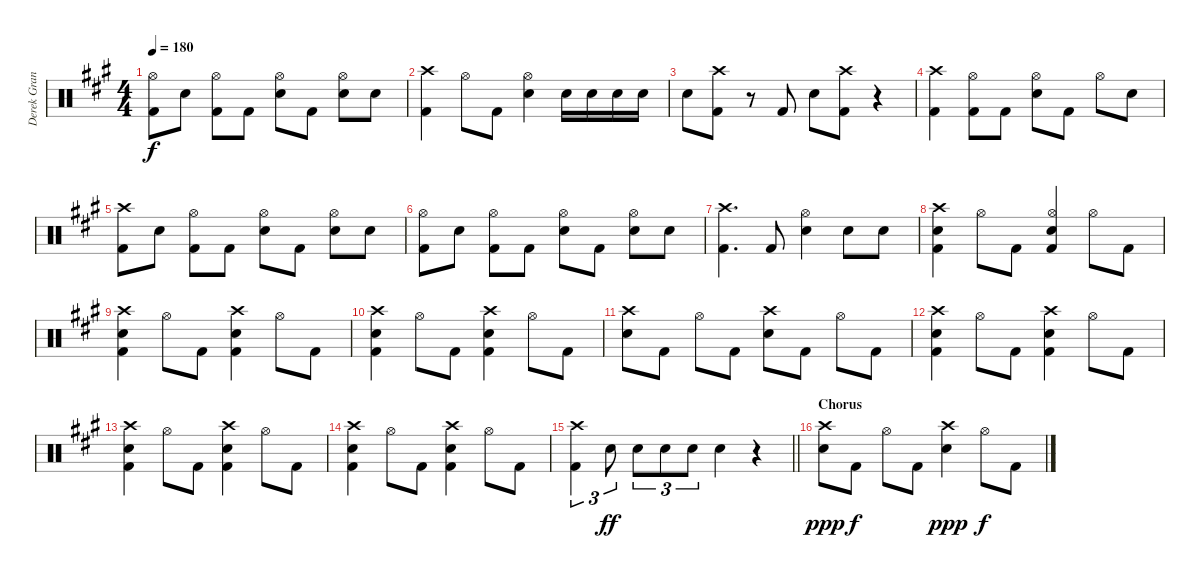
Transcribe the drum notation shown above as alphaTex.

\track ("Derek Grant - Drums" "Derek Gran") {instrument percussion}
\staff {score}
\articulation defaults
\ts (4 4)
\tempo 180
\clef neutral
\ks a
("Kick (hit) 2" "Hi-Hat (open)").8{dy f} "Snare (hit) 2".8 ("Kick (hit) 2" "Hi-Hat (open)").8 "Kick (hit) 2".8 ("Snare (hit) 2" "Hi-Hat (open)").8 "Kick (hit) 2".8 ("Snare (hit) 2" "Hi-Hat (open)").8 "Snare (hit) 2".8 |
("Kick (hit) 2" "Crash high (hit)").4 "Hi-Hat (open)".8 "Kick (hit) 2".8 ("Snare (hit) 2" "Hi-Hat (open)").4 "Snare (hit) 2".16 "Snare (hit) 2".16 "Snare (hit) 2".16 "Snare (hit) 2".16 |
"Snare (hit) 2".8 ("Kick (hit) 2" "Crash high (hit)").8 r.8 "Kick (hit) 2".8 "Snare (hit) 2".8 ("Kick (hit) 2" "Crash high (hit)").8 r.4 |
("Kick (hit) 2" "Crash high (hit)").4 ("Kick (hit) 2" "Hi-Hat (open)").8 "Kick (hit) 2".8 ("Snare (hit) 2" "Hi-Hat (open)").8 "Kick (hit) 2".8 "Hi-Hat (open)".8 "Snare (hit) 2".8 |
("Kick (hit) 2" "Crash high (hit)").8 "Snare (hit) 2".8 ("Kick (hit) 2" "Hi-Hat (open)").8 "Kick (hit) 2".8 ("Snare (hit) 2" "Hi-Hat (open)").8 "Kick (hit) 2".8 ("Snare (hit) 2" "Hi-Hat (open)").8 "Snare (hit) 2".8 |
("Kick (hit) 2" "Hi-Hat (open)").8 "Snare (hit) 2".8 ("Kick (hit) 2" "Hi-Hat (open)").8 "Kick (hit) 2".8 ("Snare (hit) 2" "Hi-Hat (open)").8 "Kick (hit) 2".8 ("Snare (hit) 2" "Hi-Hat (open)").8 "Snare (hit) 2".8 |
("Crash high (hit)" "Kick (hit) 2").4{d} "Kick (hit) 2".8 ("Snare (hit) 2" "Hi-Hat (open)").4 "Snare (hit) 2".8 "Snare (hit) 2".8 |
("Crash high (hit)" "Kick (hit) 2" "Snare (hit) 2").4 "Hi-Hat (open)".8 "Kick (hit) 2".8 ("Hi-Hat (open)" "Kick (hit) 2" "Snare (hit) 2").4 "Hi-Hat (open)".8 "Kick (hit) 2".8 |
("Crash high (hit)" "Kick (hit) 2" "Snare (hit) 2").4 "Hi-Hat (open)".8 "Kick (hit) 2".8 ("Crash high (hit)" "Kick (hit) 2" "Snare (hit) 2").4 "Hi-Hat (open)".8 "Kick (hit) 2".8 |
("Crash high (hit)" "Kick (hit) 2" "Snare (hit) 2").4 "Hi-Hat (open)".8 "Kick (hit) 2".8 ("Crash high (hit)" "Kick (hit) 2" "Snare (hit) 2").4 "Hi-Hat (open)".8 "Kick (hit) 2".8 |
("Crash high (hit)" "Snare (hit) 2").8 "Kick (hit) 2".8 "Hi-Hat (open)".8 "Kick (hit) 2".8 ("Crash high (hit)" "Snare (hit) 2").8 "Kick (hit) 2".8 "Hi-Hat (open)".8 "Kick (hit) 2".8 |
("Crash high (hit)" "Kick (hit) 2" "Snare (hit) 2").4 "Hi-Hat (open)".8 "Kick (hit) 2".8 ("Crash high (hit)" "Kick (hit) 2" "Snare (hit) 2").4 "Hi-Hat (open)".8 "Kick (hit) 2".8 |
("Crash high (hit)" "Kick (hit) 2" "Snare (hit) 2").4 "Hi-Hat (open)".8 "Kick (hit) 2".8 ("Crash high (hit)" "Kick (hit) 2" "Snare (hit) 2").4 "Hi-Hat (open)".8 "Kick (hit) 2".8 |
("Crash high (hit)" "Kick (hit) 2" "Snare (hit) 2").4 "Hi-Hat (open)".8 "Kick (hit) 2".8 ("Crash high (hit)" "Kick (hit) 2" "Snare (hit) 2").4 "Hi-Hat (open)".8 "Kick (hit) 2".8 |
\barLineRight lightlight
("Crash high (hit)" "Kick (hit) 2").4{tu (3 2)} "Snare (hit) 2".8{tu (3 2) dy ff} "Snare (hit) 2".8{tu (3 2)} "Snare (hit) 2".8{tu (3 2)} "Snare (hit) 2".8{tu (3 2)} "Snare (hit) 2".4 r.4 |
\section ("" "Chorus")
("Snare (hit) 2" "Crash high (hit)").8{dy ppp} "Kick (hit) 2".8{dy f} "Hi-Hat (open)".8 "Kick (hit) 2".8 ("Snare (hit) 2" "Crash high (hit)").4{dy ppp} "Hi-Hat (open)".8{dy f} "Kick (hit) 2".8
